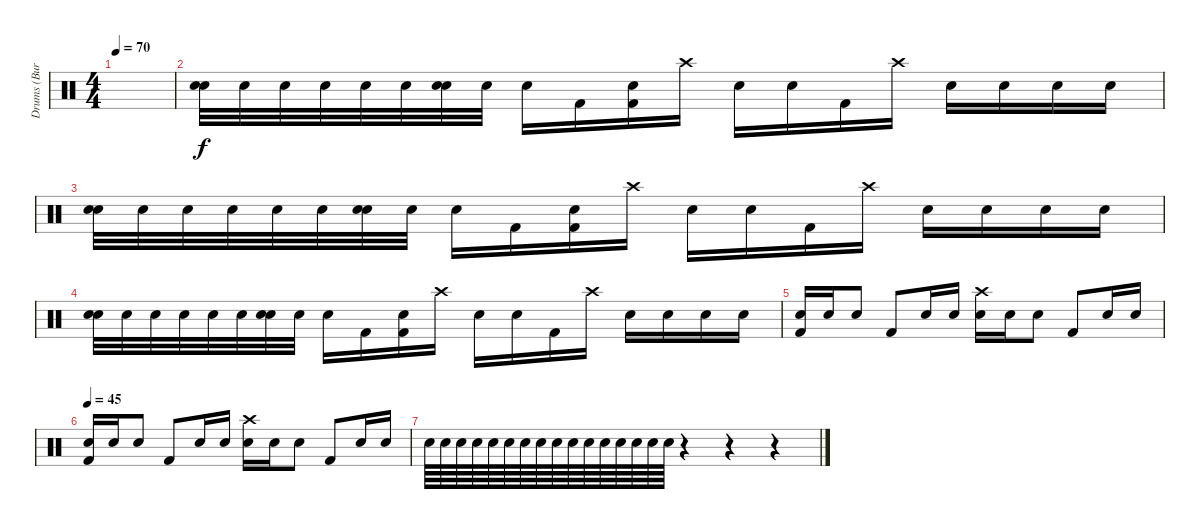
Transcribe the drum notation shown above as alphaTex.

\track ("Drums (Burnz)" "Drums (Bur") {instrument percussion}
\staff {score}
\articulation defaults
\ts (4 4)
\tempo 70
\clef neutral
\ks c
|
("Electric Snare (hit)" "Electric Snare (hit)").32{volume 15} "Electric Snare (hit)".32 "Electric Snare (hit)".32 "Electric Snare (hit)".32 "Electric Snare (hit)".32 "Electric Snare (hit)".32 ("Electric Snare (hit)" "Electric Snare (hit)").32 "Electric Snare (hit)".32 "Electric Snare (hit)".16 "Kick (hit) 2".16 ("Electric Snare (hit)" "Kick (hit) 2").16 "Crash high (hit)".16 "Electric Snare (hit)".16 "Electric Snare (hit)".16 "Kick (hit) 2".16 "Crash high (hit)".16 "Electric Snare (hit)".16 "Electric Snare (hit)".16 "Electric Snare (hit)".16 "Electric Snare (hit)".16 |
("Electric Snare (hit)" "Electric Snare (hit)").32 "Electric Snare (hit)".32 "Electric Snare (hit)".32 "Electric Snare (hit)".32 "Electric Snare (hit)".32 "Electric Snare (hit)".32 ("Electric Snare (hit)" "Electric Snare (hit)").32 "Electric Snare (hit)".32 "Electric Snare (hit)".16 "Kick (hit) 2".16 ("Electric Snare (hit)" "Kick (hit) 2").16 "Crash high (hit)".16 "Electric Snare (hit)".16 "Electric Snare (hit)".16 "Kick (hit) 2".16 "Crash high (hit)".16 "Electric Snare (hit)".16 "Electric Snare (hit)".16 "Electric Snare (hit)".16 "Electric Snare (hit)".16 |
("Electric Snare (hit)" "Electric Snare (hit)").32 "Electric Snare (hit)".32 "Electric Snare (hit)".32 "Electric Snare (hit)".32 "Electric Snare (hit)".32 "Electric Snare (hit)".32 ("Electric Snare (hit)" "Electric Snare (hit)").32 "Electric Snare (hit)".32 "Electric Snare (hit)".16 "Kick (hit) 2".16 ("Electric Snare (hit)" "Kick (hit) 2").16 "Crash high (hit)".16 "Electric Snare (hit)".16 "Electric Snare (hit)".16 "Kick (hit) 2".16 "Crash high (hit)".16 "Electric Snare (hit)".16 "Electric Snare (hit)".16 "Electric Snare (hit)".16 "Electric Snare (hit)".16 |
("Electric Snare (hit)" "Kick (hit) 2").16 "Electric Snare (hit)".16 "Electric Snare (hit)".8 "Kick (hit) 2".8 "Electric Snare (hit)".16 "Electric Snare (hit)".16 ("Electric Snare (hit)" "Crash high (hit)").16 "Electric Snare (hit)".16 "Electric Snare (hit)".8 "Kick (hit) 2".8 "Electric Snare (hit)".16 "Electric Snare (hit)".16 |
\tempo 45
("Electric Snare (hit)" "Kick (hit) 2").16 "Electric Snare (hit)".16 "Electric Snare (hit)".8 "Kick (hit) 2".8 "Electric Snare (hit)".16 "Electric Snare (hit)".16 ("Electric Snare (hit)" "Crash high (hit)").16 "Electric Snare (hit)".16 "Electric Snare (hit)".8 "Kick (hit) 2".8 "Electric Snare (hit)".16 "Electric Snare (hit)".16 |
"Electric Snare (hit)".64 "Electric Snare (hit)".64 "Electric Snare (hit)".64 "Electric Snare (hit)".64 "Electric Snare (hit)".64 "Electric Snare (hit)".64 "Electric Snare (hit)".64 "Electric Snare (hit)".64 "Electric Snare (hit)".64 "Electric Snare (hit)".64 "Electric Snare (hit)".64 "Electric Snare (hit)".64 "Electric Snare (hit)".64 "Electric Snare (hit)".64 "Electric Snare (hit)".64 "Electric Snare (hit)".64 r.4 r.4 r.4
